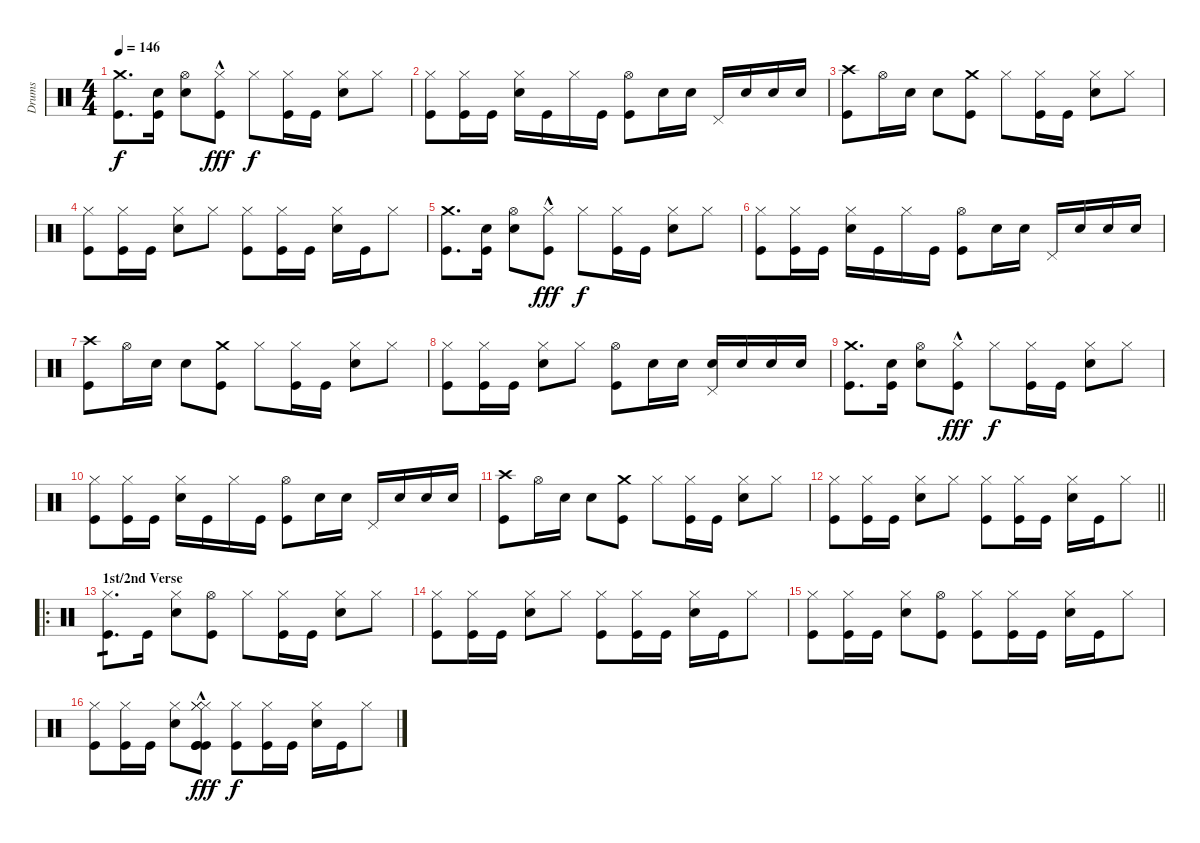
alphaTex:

\track ("Drums" "Drums") {instrument percussion}
\staff {score}
\articulation defaults
\ts (4 4)
\tempo 146
\clef neutral
\ks c
("Crash medium (hit)" "Kick (hit)").8{d dy f} ("Electric Snare (hit)" "Kick (hit)").16 ("Hi-Hat (open)" "Electric Snare (hit)").8 ("Hi-Hat (closed)"{hac} "Kick (hit)"{hac}).8{dy fff} "Hi-Hat (closed)".8{dy f} ("Hi-Hat (closed)" "Kick (hit)").16 "Kick (hit)".16 ("Hi-Hat (closed)" "Electric Snare (hit)").8 "Hi-Hat (closed)".8 |
("Hi-Hat (closed)" "Kick (hit)").8 ("Hi-Hat (closed)" "Kick (hit)").16 "Kick (hit)".16 ("Hi-Hat (closed)" "Electric Snare (hit)").16 "Kick (hit)".16 "Hi-Hat (closed)".16 "Kick (hit)".16 ("Hi-Hat (open)" "Kick (hit)").8 "Electric Snare (hit)".16 "Electric Snare (hit)".16 "Pedal Hi-Hat (hit)".16 "Electric Snare (hit)".16 "Electric Snare (hit)".16 "Electric Snare (hit)".16 |
("Crash high (hit)" "Kick (hit)").8 "Hi-Hat (open)".16 "Electric Snare (hit)".16 "Electric Snare (hit)".8 ("Crash medium (hit)" "Kick (hit)").8 "Hi-Hat (closed)".8 ("Hi-Hat (closed)" "Kick (hit)").16 "Kick (hit)".16 ("Hi-Hat (closed)" "Electric Snare (hit)").8 "Hi-Hat (closed)".8 |
("Hi-Hat (closed)" "Kick (hit)").8 ("Hi-Hat (closed)" "Kick (hit)").16 "Kick (hit)".16 ("Hi-Hat (closed)" "Electric Snare (hit)").8 "Hi-Hat (closed)".8 ("Hi-Hat (closed)" "Kick (hit)").8 ("Hi-Hat (closed)" "Kick (hit)").16 "Kick (hit)".16 ("Hi-Hat (closed)" "Electric Snare (hit)").16 "Kick (hit)".16 "Hi-Hat (closed)".8 |
("Crash medium (hit)" "Kick (hit)").8{d} ("Electric Snare (hit)" "Kick (hit)").16 ("Hi-Hat (open)" "Electric Snare (hit)").8 ("Hi-Hat (closed)"{hac} "Kick (hit)"{hac}).8{dy fff} "Hi-Hat (closed)".8{dy f} ("Hi-Hat (closed)" "Kick (hit)").16 "Kick (hit)".16 ("Hi-Hat (closed)" "Electric Snare (hit)").8 "Hi-Hat (closed)".8 |
("Hi-Hat (closed)" "Kick (hit)").8 ("Hi-Hat (closed)" "Kick (hit)").16 "Kick (hit)".16 ("Hi-Hat (closed)" "Electric Snare (hit)").16 "Kick (hit)".16 "Hi-Hat (closed)".16 "Kick (hit)".16 ("Hi-Hat (open)" "Kick (hit)").8 "Electric Snare (hit)".16 "Electric Snare (hit)".16 "Pedal Hi-Hat (hit)".16 "Electric Snare (hit)".16 "Electric Snare (hit)".16 "Electric Snare (hit)".16 |
("Crash high (hit)" "Kick (hit)").8 "Hi-Hat (open)".16 "Electric Snare (hit)".16 "Electric Snare (hit)".8 ("Crash medium (hit)" "Kick (hit)").8 "Hi-Hat (closed)".8 ("Hi-Hat (closed)" "Kick (hit)").16 "Kick (hit)".16 ("Hi-Hat (closed)" "Electric Snare (hit)").8 "Hi-Hat (closed)".8 |
("Hi-Hat (closed)" "Kick (hit)").8 ("Hi-Hat (closed)" "Kick (hit)").16 "Kick (hit)".16 ("Hi-Hat (closed)" "Electric Snare (hit)").8 "Hi-Hat (closed)".8 ("Hi-Hat (open)" "Kick (hit)").8 "Electric Snare (hit)".16 "Electric Snare (hit)".16 ("Pedal Hi-Hat (hit)" "Electric Snare (hit)").16 "Electric Snare (hit)".16 "Electric Snare (hit)".16 "Electric Snare (hit)".16 |
("Crash medium (hit)" "Kick (hit)").8{d} ("Electric Snare (hit)" "Kick (hit)").16 ("Hi-Hat (open)" "Electric Snare (hit)").8 ("Hi-Hat (closed)"{hac} "Kick (hit)"{hac}).8{dy fff} "Hi-Hat (closed)".8{dy f} ("Hi-Hat (closed)" "Kick (hit)").16 "Kick (hit)".16 ("Hi-Hat (closed)" "Electric Snare (hit)").8 "Hi-Hat (closed)".8 |
("Hi-Hat (closed)" "Kick (hit)").8 ("Hi-Hat (closed)" "Kick (hit)").16 "Kick (hit)".16 ("Hi-Hat (closed)" "Electric Snare (hit)").16 "Kick (hit)".16 "Hi-Hat (closed)".16 "Kick (hit)".16 ("Hi-Hat (open)" "Kick (hit)").8 "Electric Snare (hit)".16 "Electric Snare (hit)".16 "Pedal Hi-Hat (hit)".16 "Electric Snare (hit)".16 "Electric Snare (hit)".16 "Electric Snare (hit)".16 |
("Crash high (hit)" "Kick (hit)").8 "Hi-Hat (open)".16 "Electric Snare (hit)".16 "Electric Snare (hit)".8 ("Crash medium (hit)" "Kick (hit)").8 "Hi-Hat (closed)".8 ("Hi-Hat (closed)" "Kick (hit)").16 "Kick (hit)".16 ("Hi-Hat (closed)" "Electric Snare (hit)").8 "Hi-Hat (closed)".8 |
\barLineRight lightlight
("Hi-Hat (closed)" "Kick (hit)").8 ("Hi-Hat (closed)" "Kick (hit)").16 "Kick (hit)".16 ("Hi-Hat (closed)" "Electric Snare (hit)").8 "Hi-Hat (closed)".8 ("Hi-Hat (closed)" "Kick (hit)").8 ("Hi-Hat (closed)" "Kick (hit)").16 "Kick (hit)".16 ("Hi-Hat (closed)" "Electric Snare (hit)").16 "Kick (hit)".16 "Hi-Hat (closed)".8 |
\ro
\section ("" "1st/2nd Verse")
("Hi-Hat (closed)" "Kick (hit)").8{d tp 1} "Kick (hit)".16 ("Hi-Hat (closed)" "Electric Snare (hit)").8 ("Hi-Hat (open)" "Kick (hit)").8 "Hi-Hat (closed)".8 ("Hi-Hat (closed)" "Kick (hit)").16 "Kick (hit)".16 ("Hi-Hat (closed)" "Electric Snare (hit)").8 "Hi-Hat (closed)".8 |
("Hi-Hat (closed)" "Kick (hit)").8 ("Hi-Hat (closed)" "Kick (hit)").16 "Kick (hit)".16 ("Hi-Hat (closed)" "Electric Snare (hit)").8 "Hi-Hat (closed)".8 ("Hi-Hat (closed)" "Kick (hit)").8 ("Hi-Hat (closed)" "Kick (hit)").16 "Kick (hit)".16 ("Hi-Hat (closed)" "Electric Snare (hit)").16 "Kick (hit)".16 "Hi-Hat (closed)".8 |
("Hi-Hat (closed)" "Kick (hit)").8 ("Hi-Hat (closed)" "Kick (hit)").16 "Kick (hit)".16 ("Hi-Hat (closed)" "Electric Snare (hit)").8 ("Hi-Hat (open)" "Kick (hit)").8 ("Hi-Hat (closed)" "Kick (hit)").8 ("Hi-Hat (closed)" "Kick (hit)").16 "Kick (hit)".16 ("Hi-Hat (closed)" "Electric Snare (hit)").16 "Kick (hit)".16 "Hi-Hat (closed)".8 |
("Hi-Hat (closed)" "Kick (hit)").8 ("Hi-Hat (closed)" "Kick (hit)").16 "Kick (hit)".16 ("Hi-Hat (closed)" "Electric Snare (hit)").8 ("Hi-Hat (closed)"{hac} "Hi-Hat (closed)"{hac} "Hi-Hat (closed)"{hac} "Kick (hit)"{hac} "Kick (hit)"{hac} "Kick (hit)"{hac}).8{dy fff} ("Hi-Hat (closed)" "Kick (hit)").8{dy f} ("Hi-Hat (closed)" "Kick (hit)").16 "Kick (hit)".16 ("Hi-Hat (closed)" "Electric Snare (hit)").16 "Kick (hit)".16 "Hi-Hat (closed)".8
